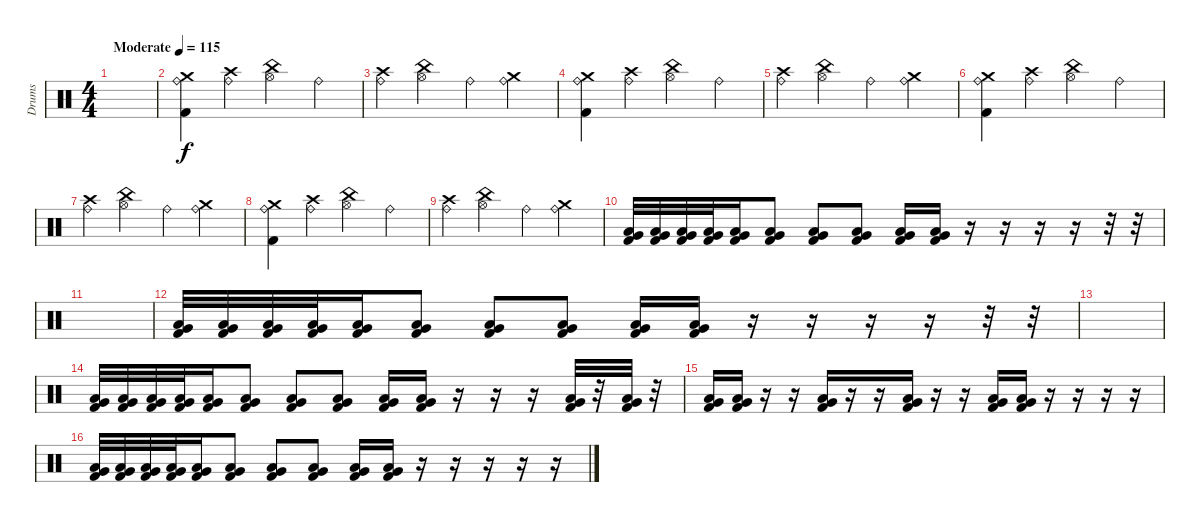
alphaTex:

\track ("Drums" "Drums") {instrument percussion}
\staff {score}
\articulation defaults
\ts (4 4)
\tempo (115 "Moderate")
\clef neutral
\ks c
|
("Crash medium (hit)" "Ride (bell)" "Kick (hit) 2").4 ("Crash high (hit)" "Ride (bell)").4 ("China (hit)" "Hi-Hat (open)").4 "Ride (bell)".4 |
("Crash high (hit)" "Ride (bell)").4 ("China (hit)" "Hi-Hat (open)").4 "Ride (bell)".4 ("Crash medium (hit)" "Ride (bell)").4 |
("Crash medium (hit)" "Ride (bell)" "Kick (hit) 2").4 ("Crash high (hit)" "Ride (bell)").4 ("China (hit)" "Hi-Hat (open)").4 "Ride (bell)".4 |
("Crash high (hit)" "Ride (bell)").4 ("China (hit)" "Hi-Hat (open)").4 "Ride (bell)".4 ("Crash medium (hit)" "Ride (bell)").4 |
("Crash medium (hit)" "Ride (bell)" "Kick (hit) 2").4 ("Crash high (hit)" "Ride (bell)").4 ("China (hit)" "Hi-Hat (open)").4 "Ride (bell)".4 |
("Crash high (hit)" "Ride (bell)").4 ("China (hit)" "Hi-Hat (open)").4 "Ride (bell)".4 ("Crash medium (hit)" "Ride (bell)").4 |
("Crash medium (hit)" "Ride (bell)" "Kick (hit) 2").4 ("Crash high (hit)" "Ride (bell)").4 ("China (hit)" "Hi-Hat (open)").4 "Ride (bell)".4 |
("Crash high (hit)" "Ride (bell)").4 ("China (hit)" "Hi-Hat (open)").4 "Ride (bell)".4 ("Crash medium (hit)" "Ride (bell)").4 |
("Very Low Tom (hit)" "Low Tom (hit)" "Kick (hit) 2").32 ("Very Low Tom (hit)" "Low Tom (hit)" "Kick (hit) 2").32 ("Very Low Tom (hit)" "Low Tom (hit)" "Kick (hit) 2").32 ("Very Low Tom (hit)" "Low Tom (hit)" "Kick (hit) 2").32 ("Very Low Tom (hit)" "Low Tom (hit)" "Kick (hit) 2").16 ("Very Low Tom (hit)" "Low Tom (hit)" "Kick (hit) 2").8 ("Very Low Tom (hit)" "Low Tom (hit)" "Kick (hit) 2").8 ("Very Low Tom (hit)" "Low Tom (hit)" "Kick (hit) 2").8 ("Very Low Tom (hit)" "Low Tom (hit)" "Kick (hit) 2").16 ("Very Low Tom (hit)" "Low Tom (hit)" "Kick (hit) 2").16 r.16 r.16 r.16 r.16 r.32 r.32 |
|
("Very Low Tom (hit)" "Low Tom (hit)" "Kick (hit) 2").32 ("Very Low Tom (hit)" "Low Tom (hit)" "Kick (hit) 2").32 ("Very Low Tom (hit)" "Low Tom (hit)" "Kick (hit) 2").32 ("Very Low Tom (hit)" "Low Tom (hit)" "Kick (hit) 2").32 ("Very Low Tom (hit)" "Low Tom (hit)" "Kick (hit) 2").16 ("Very Low Tom (hit)" "Low Tom (hit)" "Kick (hit) 2").8 ("Very Low Tom (hit)" "Low Tom (hit)" "Kick (hit) 2").8 ("Very Low Tom (hit)" "Low Tom (hit)" "Kick (hit) 2").8 ("Very Low Tom (hit)" "Low Tom (hit)" "Kick (hit) 2").16 ("Very Low Tom (hit)" "Low Tom (hit)" "Kick (hit) 2").16 r.16 r.16 r.16 r.16 r.32 r.32 |
|
("Very Low Tom (hit)" "Low Tom (hit)" "Kick (hit) 2").32 ("Very Low Tom (hit)" "Low Tom (hit)" "Kick (hit) 2").32 ("Very Low Tom (hit)" "Low Tom (hit)" "Kick (hit) 2").32 ("Very Low Tom (hit)" "Low Tom (hit)" "Kick (hit) 2").32 ("Very Low Tom (hit)" "Low Tom (hit)" "Kick (hit) 2").16 ("Very Low Tom (hit)" "Low Tom (hit)" "Kick (hit) 2").8 ("Very Low Tom (hit)" "Low Tom (hit)" "Kick (hit) 2").8 ("Very Low Tom (hit)" "Low Tom (hit)" "Kick (hit) 2").8 ("Very Low Tom (hit)" "Low Tom (hit)" "Kick (hit) 2").16 ("Very Low Tom (hit)" "Low Tom (hit)" "Kick (hit) 2").16 r.16 r.16 r.16 ("Very Low Tom (hit)" "Low Tom (hit)" "Kick (hit) 2").32 r.32 ("Very Low Tom (hit)" "Low Tom (hit)" "Kick (hit) 2").32 r.32 |
("Very Low Tom (hit)" "Low Tom (hit)" "Kick (hit) 2").16 ("Very Low Tom (hit)" "Low Tom (hit)" "Kick (hit) 2").16 r.16 r.16 ("Very Low Tom (hit)" "Low Tom (hit)" "Kick (hit) 2").16 r.16 r.16 ("Very Low Tom (hit)" "Low Tom (hit)" "Kick (hit) 2").16 r.16 r.16 ("Very Low Tom (hit)" "Low Tom (hit)" "Kick (hit) 2").16 ("Very Low Tom (hit)" "Low Tom (hit)" "Kick (hit) 2").16 r.16 r.16 r.16 r.16 |
("Very Low Tom (hit)" "Low Tom (hit)" "Kick (hit) 2").32 ("Very Low Tom (hit)" "Low Tom (hit)" "Kick (hit) 2").32 ("Very Low Tom (hit)" "Low Tom (hit)" "Kick (hit) 2").32 ("Very Low Tom (hit)" "Low Tom (hit)" "Kick (hit) 2").32 ("Very Low Tom (hit)" "Low Tom (hit)" "Kick (hit) 2").16 ("Very Low Tom (hit)" "Low Tom (hit)" "Kick (hit) 2").8 ("Very Low Tom (hit)" "Low Tom (hit)" "Kick (hit) 2").8 ("Very Low Tom (hit)" "Low Tom (hit)" "Kick (hit) 2").8 ("Very Low Tom (hit)" "Low Tom (hit)" "Kick (hit) 2").16 ("Very Low Tom (hit)" "Low Tom (hit)" "Kick (hit) 2").16 r.16 r.16 r.16 r.16 r.16
